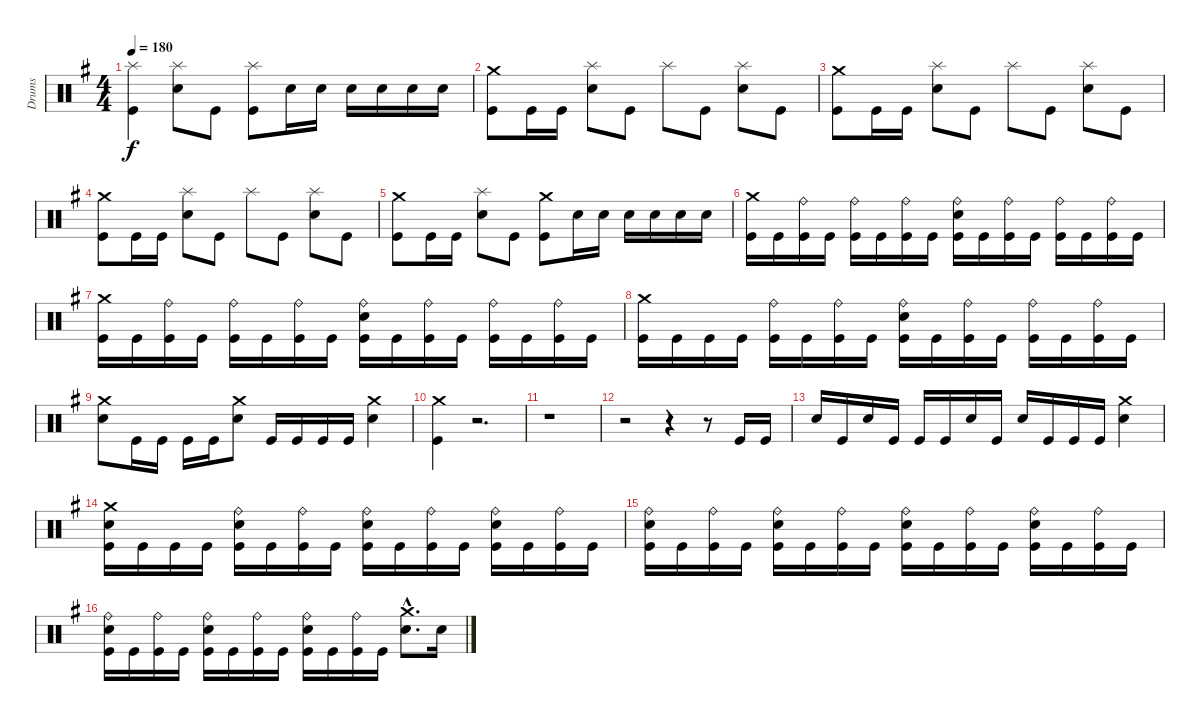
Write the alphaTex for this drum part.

\track ("Drums" "Drums") {instrument percussion}
\staff {score}
\articulation defaults
\ts (4 4)
\tempo 180
\clef neutral
\ks g
("Kick (hit)" "Splash (hit)").4{dy f} ("Electric Snare (hit)" "Splash (hit)").8 "Kick (hit)".8 ("Kick (hit)" "Splash (hit)").8 "Electric Snare (hit)".16 "Electric Snare (hit)".16 "Electric Snare (hit)".16 "Electric Snare (hit)".16 "Electric Snare (hit)".16 "Electric Snare (hit)".16 |
("Kick (hit)" "Crash medium (hit)").8 "Kick (hit)".16 "Kick (hit)".16 ("Electric Snare (hit)" "Splash (hit)").8 "Kick (hit)".8 "Splash (hit)".8 "Kick (hit)".8 ("Electric Snare (hit)" "Splash (hit)").8 "Kick (hit)".8 |
("Kick (hit)" "Crash medium (hit)").8 "Kick (hit)".16 "Kick (hit)".16 ("Electric Snare (hit)" "Splash (hit)").8 "Kick (hit)".8 "Splash (hit)".8 "Kick (hit)".8 ("Electric Snare (hit)" "Splash (hit)").8 "Kick (hit)".8 |
("Kick (hit)" "Crash medium (hit)").8 "Kick (hit)".16 "Kick (hit)".16 ("Electric Snare (hit)" "Splash (hit)").8 "Kick (hit)".8 "Splash (hit)".8 "Kick (hit)".8 ("Electric Snare (hit)" "Splash (hit)").8 "Kick (hit)".8 |
("Kick (hit)" "Crash medium (hit)").8 "Kick (hit)".16 "Kick (hit)".16 ("Electric Snare (hit)" "Splash (hit)").8 "Kick (hit)".8 ("Kick (hit)" "Crash medium (hit)").8 "Electric Snare (hit)".16 "Electric Snare (hit)".16 "Electric Snare (hit)".16 "Electric Snare (hit)".16 "Electric Snare (hit)".16 "Electric Snare (hit)".16 |
("Kick (hit)" "Crash medium (hit)").16 "Kick (hit)".16 ("Kick (hit)" "Ride (bell)").16 "Kick (hit)".16 ("Kick (hit)" "Ride (bell)").16 "Kick (hit)".16 ("Kick (hit)" "Ride (bell)").16 "Kick (hit)".16 ("Kick (hit)" "Electric Snare (hit)" "Ride (bell)").16 "Kick (hit)".16 ("Kick (hit)" "Ride (bell)").16 "Kick (hit)".16 ("Kick (hit)" "Ride (bell)").16 "Kick (hit)".16 ("Kick (hit)" "Ride (bell)").16 "Kick (hit)".16 |
("Kick (hit)" "Crash medium (hit)").16 "Kick (hit)".16 ("Kick (hit)" "Ride (bell)").16 "Kick (hit)".16 ("Kick (hit)" "Ride (bell)").16 "Kick (hit)".16 ("Kick (hit)" "Ride (bell)").16 "Kick (hit)".16 ("Kick (hit)" "Electric Snare (hit)" "Ride (bell)").16 "Kick (hit)".16 ("Kick (hit)" "Ride (bell)").16 "Kick (hit)".16 ("Kick (hit)" "Ride (bell)").16 "Kick (hit)".16 ("Kick (hit)" "Ride (bell)").16 "Kick (hit)".16 |
("Kick (hit)" "Crash medium (hit)").16 "Kick (hit)".16 "Kick (hit)".16 "Kick (hit)".16 ("Kick (hit)" "Ride (bell)").16 "Kick (hit)".16 ("Kick (hit)" "Ride (bell)").16 "Kick (hit)".16 ("Kick (hit)" "Electric Snare (hit)" "Ride (bell)").16 "Kick (hit)".16 ("Kick (hit)" "Ride (bell)").16 "Kick (hit)".16 ("Kick (hit)" "Ride (bell)").16 "Kick (hit)".16 ("Kick (hit)" "Ride (bell)").16 "Kick (hit)".16 |
("Electric Snare (hit)" "Crash medium (hit)").8 "Kick (hit)".16 "Kick (hit)".16 "Kick (hit)".16 "Kick (hit)".16 ("Electric Snare (hit)" "Crash medium (hit)").8 "Kick (hit)".16 "Kick (hit)".16 "Kick (hit)".16 "Kick (hit)".16 ("Electric Snare (hit)" "Crash medium (hit)").4 |
("Kick (hit)" "Crash medium (hit)").4 r.2{d} |
r.1 |
r.2 r.4 r.8 "Kick (hit)".16 "Kick (hit)".16 |
"Electric Snare (hit)".16 "Kick (hit)".16 "Electric Snare (hit)".16 "Kick (hit)".16 "Kick (hit)".16 "Kick (hit)".16 "Electric Snare (hit)".16 "Kick (hit)".16 "Electric Snare (hit)".16 "Kick (hit)".16 "Kick (hit)".16 "Kick (hit)".16 ("Electric Snare (hit)" "Crash medium (hit)").4 |
("Kick (hit)" "Electric Snare (hit)" "Crash medium (hit)").16 "Kick (hit)".16 "Kick (hit)".16 "Kick (hit)".16 ("Kick (hit)" "Electric Snare (hit)" "Ride (bell)").16 "Kick (hit)".16 ("Kick (hit)" "Ride (bell)").16 "Kick (hit)".16 ("Kick (hit)" "Electric Snare (hit)" "Ride (bell)").16 "Kick (hit)".16 ("Kick (hit)" "Ride (bell)").16 "Kick (hit)".16 ("Kick (hit)" "Electric Snare (hit)" "Ride (bell)").16 "Kick (hit)".16 ("Kick (hit)" "Ride (bell)").16 "Kick (hit)".16 |
("Kick (hit)" "Electric Snare (hit)" "Ride (bell)").16 "Kick (hit)".16 ("Kick (hit)" "Ride (bell)").16 "Kick (hit)".16 ("Kick (hit)" "Electric Snare (hit)" "Ride (bell)").16 "Kick (hit)".16 ("Kick (hit)" "Ride (bell)").16 "Kick (hit)".16 ("Kick (hit)" "Electric Snare (hit)" "Ride (bell)").16 "Kick (hit)".16 ("Kick (hit)" "Ride (bell)").16 "Kick (hit)".16 ("Kick (hit)" "Electric Snare (hit)" "Ride (bell)").16 "Kick (hit)".16 ("Kick (hit)" "Ride (bell)").16 "Kick (hit)".16 |
("Kick (hit)" "Electric Snare (hit)" "Ride (bell)").16 "Kick (hit)".16 ("Kick (hit)" "Ride (bell)").16 "Kick (hit)".16 ("Kick (hit)" "Electric Snare (hit)" "Ride (bell)").16 "Kick (hit)".16 ("Kick (hit)" "Ride (bell)").16 "Kick (hit)".16 ("Kick (hit)" "Electric Snare (hit)" "Ride (bell)").16 "Kick (hit)".16 ("Kick (hit)" "Ride (bell)").16 "Kick (hit)".16 ("Electric Snare (hit)"{hac} "Crash medium (hit)"{hac}).8{d} "Electric Snare (hit)".16
